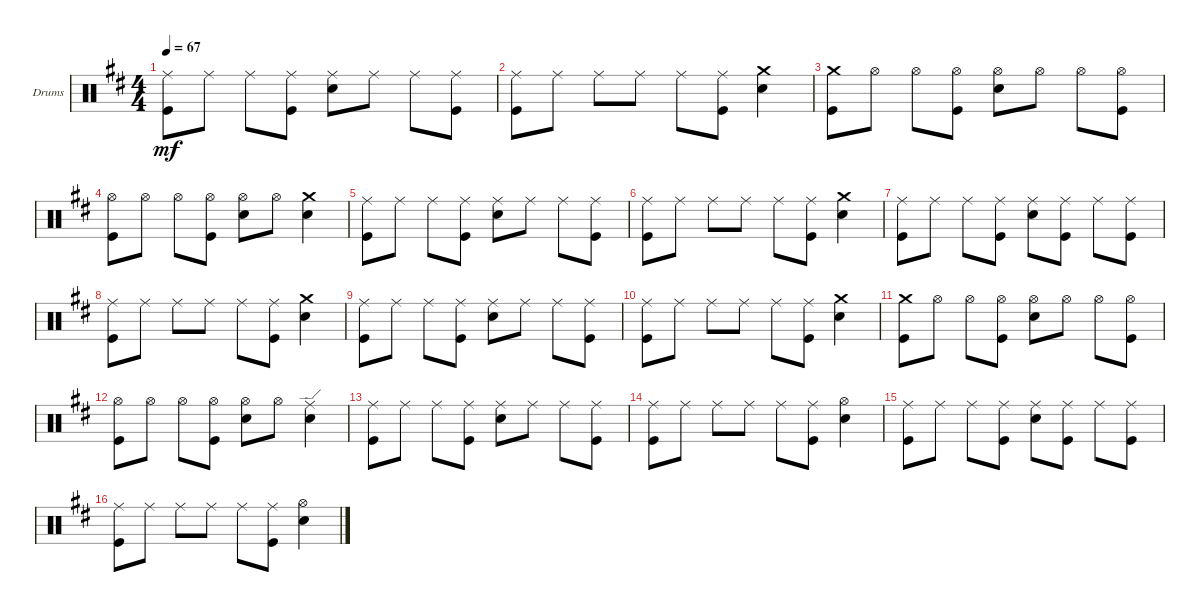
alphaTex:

\defaultSystemsLayout 4
\bracketExtendMode groupsimilarinstruments
\firstSystemTrackNameOrientation horizontal
\otherSystemsTrackNameOrientation horizontal
\track ("Drumkit" "Drums") {instrument percussion}
\staff {score}
\articulation defaults
\ts (4 4)
\tempo 67
\clef neutral
\scale
0.333333
\ks d
("Ride (middle)" "Kick (hit)").8{dy mf} "Ride (middle)".8 "Ride (middle)".8 ("Kick (hit)" "Ride (middle)").8 ("Snare (hit) 2" "Ride (middle)").8 "Ride (middle)".8 "Ride (middle)".8 ("Kick (hit)" "Ride (middle)").8 |
\scale
0.333333 ("Kick (hit)" "Ride (middle)").8 "Ride (middle)".8 "Ride (middle)".8 "Ride (middle)".8 "Ride (middle)".8 ("Kick (hit)" "Ride (middle)").8 ("Snare (hit) 2" "Crash medium (hit)").4 |
\scale
0.333333 ("Crash medium (hit)" "Kick (hit)").8 "Hi-Hat (open)".8 "Hi-Hat (open)".8 ("Kick (hit)" "Hi-Hat (open)").8 ("Snare (hit) 2" "Hi-Hat (open)").8 "Hi-Hat (open)".8 "Hi-Hat (open)".8 ("Kick (hit)" "Hi-Hat (open)").8 |
\scale
0.333333 ("Kick (hit)" "Hi-Hat (open)").8 "Hi-Hat (open)".8 "Hi-Hat (open)".8 ("Kick (hit)" "Hi-Hat (open)").8 ("Snare (hit) 2" "Hi-Hat (open)").8 "Hi-Hat (open)".8 ("Snare (hit) 2" "Crash medium (hit)").4 |
\scale
0.333333 ("Ride (middle)" "Kick (hit)").8 "Ride (middle)".8 "Ride (middle)".8 ("Kick (hit)" "Ride (middle)").8 ("Snare (hit) 2" "Ride (middle)").8 "Ride (middle)".8 "Ride (middle)".8 ("Kick (hit)" "Ride (middle)").8 |
\scale
0.333333 ("Kick (hit)" "Ride (middle)").8 "Ride (middle)".8 "Ride (middle)".8 "Ride (middle)".8 "Ride (middle)".8 ("Kick (hit)" "Ride (middle)").8 ("Snare (hit) 2" "Crash medium (hit)").4 |
\scale
0.333333 ("Ride (middle)" "Kick (hit)").8 "Ride (middle)".8 "Ride (middle)".8 ("Kick (hit)" "Ride (middle)").8 ("Snare (hit) 2" "Ride (middle)").8 ("Ride (middle)" "Kick (hit)").8 "Ride (middle)".8 ("Kick (hit)" "Ride (middle)").8 |
\scale
0.333333 ("Kick (hit)" "Ride (middle)").8 "Ride (middle)".8 "Ride (middle)".8 "Ride (middle)".8 "Ride (middle)".8 ("Kick (hit)" "Ride (middle)").8 ("Snare (hit) 2" "Crash medium (hit)").4 |
\scale
0.333333 ("Ride (middle)" "Kick (hit)").8 "Ride (middle)".8 "Ride (middle)".8 ("Kick (hit)" "Ride (middle)").8 ("Snare (hit) 2" "Ride (middle)").8 "Ride (middle)".8 "Ride (middle)".8 ("Kick (hit)" "Ride (middle)").8 |
\scale
0.333333 ("Kick (hit)" "Ride (middle)").8 "Ride (middle)".8 "Ride (middle)".8 "Ride (middle)".8 "Ride (middle)".8 ("Kick (hit)" "Ride (middle)").8 ("Snare (hit) 2" "Crash medium (hit)").4 |
\scale
0.333333 ("Crash medium (hit)" "Kick (hit)").8 "Hi-Hat (open)".8 "Hi-Hat (open)".8 ("Kick (hit)" "Hi-Hat (open)").8 ("Snare (hit) 2" "Hi-Hat (open)").8 "Hi-Hat (open)".8 "Hi-Hat (open)".8 ("Kick (hit)" "Hi-Hat (open)").8 |
\scale
0.333333 ("Kick (hit)" "Hi-Hat (open)").8 "Hi-Hat (open)".8 "Hi-Hat (open)".8 ("Kick (hit)" "Hi-Hat (open)").8 ("Snare (hit) 2" "Hi-Hat (open)").8 "Hi-Hat (open)".8 ("Snare (hit) 2" "Ride (edge)").4 |
\scale
0.333333 ("Ride (middle)" "Kick (hit)").8 "Ride (middle)".8 "Ride (middle)".8 ("Kick (hit)" "Ride (middle)").8 ("Snare (hit) 2" "Ride (middle)").8 "Ride (middle)".8 "Ride (middle)".8 ("Kick (hit)" "Ride (middle)").8 |
\scale
0.333333 ("Kick (hit)" "Ride (middle)").8 "Ride (middle)".8 "Ride (middle)".8 "Ride (middle)".8 "Ride (middle)".8 ("Kick (hit)" "Ride (middle)").8 ("Snare (hit) 2" "Hi-Hat (open)").4 |
\scale
0.333333 ("Ride (middle)" "Kick (hit)").8 "Ride (middle)".8 "Ride (middle)".8 ("Kick (hit)" "Ride (middle)").8 ("Snare (hit) 2" "Ride (middle)").8 ("Ride (middle)" "Kick (hit)").8 "Ride (middle)".8 ("Kick (hit)" "Ride (middle)").8 |
\scale
0.333333 ("Kick (hit)" "Ride (middle)").8 "Ride (middle)".8 "Ride (middle)".8 "Ride (middle)".8 "Ride (middle)".8 ("Kick (hit)" "Ride (middle)").8 ("Snare (hit) 2" "Hi-Hat (open)").4
